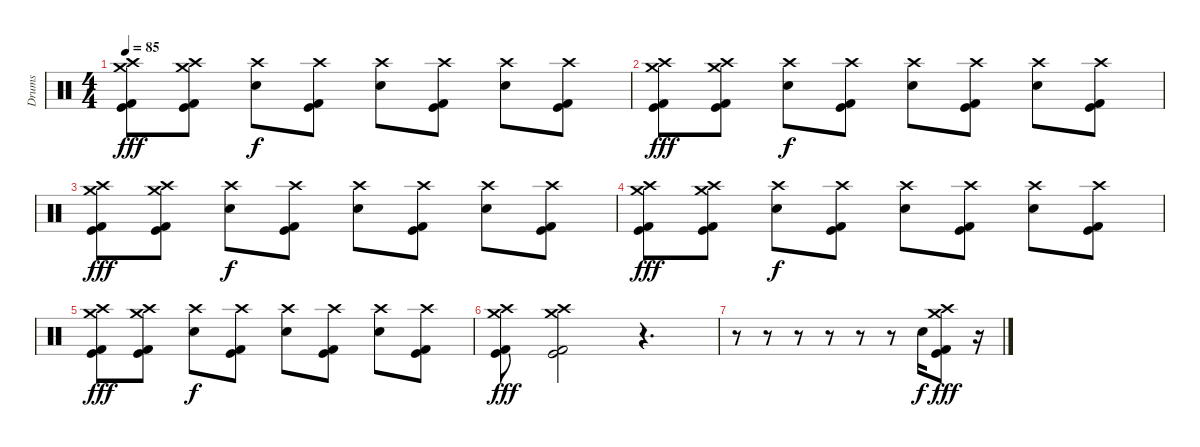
\track ("Drums" "Drums") {instrument percussion}
\staff {score}
\articulation defaults
\ts (4 4)
\tempo 85
\clef neutral
\ks c
("Crash high (hit)" "Crash medium (hit)" "Kick (hit) 2" "Kick (hit)").8{dy fff} ("Crash high (hit)" "Crash medium (hit)" "Kick (hit) 2" "Kick (hit)").8 ("Crash high (hit)" "Snare (hit) 2").8{dy f} ("Crash high (hit)" "Kick (hit) 2" "Kick (hit)").8 ("Crash high (hit)" "Snare (hit) 2").8 ("Crash high (hit)" "Kick (hit) 2" "Kick (hit)").8 ("Crash high (hit)" "Snare (hit) 2").8 ("Crash high (hit)" "Kick (hit) 2" "Kick (hit)").8 |
("Crash high (hit)" "Crash medium (hit)" "Kick (hit) 2" "Kick (hit)").8{dy fff} ("Crash high (hit)" "Crash medium (hit)" "Kick (hit) 2" "Kick (hit)").8 ("Crash high (hit)" "Snare (hit) 2").8{dy f} ("Crash high (hit)" "Kick (hit) 2" "Kick (hit)").8 ("Crash high (hit)" "Snare (hit) 2").8 ("Crash high (hit)" "Kick (hit) 2" "Kick (hit)").8 ("Crash high (hit)" "Snare (hit) 2").8 ("Crash high (hit)" "Kick (hit) 2" "Kick (hit)").8 |
("Crash high (hit)" "Crash medium (hit)" "Kick (hit) 2" "Kick (hit)").8{dy fff} ("Crash high (hit)" "Crash medium (hit)" "Kick (hit) 2" "Kick (hit)").8 ("Crash high (hit)" "Snare (hit) 2").8{dy f} ("Crash high (hit)" "Kick (hit) 2" "Kick (hit)").8 ("Crash high (hit)" "Snare (hit) 2").8 ("Crash high (hit)" "Kick (hit) 2" "Kick (hit)").8 ("Crash high (hit)" "Snare (hit) 2").8 ("Crash high (hit)" "Kick (hit) 2" "Kick (hit)").8 |
("Crash high (hit)" "Crash medium (hit)" "Kick (hit) 2" "Kick (hit)").8{dy fff} ("Crash high (hit)" "Crash medium (hit)" "Kick (hit) 2" "Kick (hit)").8 ("Crash high (hit)" "Snare (hit) 2").8{dy f} ("Crash high (hit)" "Kick (hit) 2" "Kick (hit)").8 ("Crash high (hit)" "Snare (hit) 2").8 ("Crash high (hit)" "Kick (hit) 2" "Kick (hit)").8 ("Crash high (hit)" "Snare (hit) 2").8 ("Crash high (hit)" "Kick (hit) 2" "Kick (hit)").8 |
("Crash high (hit)" "Crash medium (hit)" "Kick (hit) 2" "Kick (hit)").8{dy fff} ("Crash high (hit)" "Crash medium (hit)" "Kick (hit) 2" "Kick (hit)").8 ("Crash high (hit)" "Snare (hit) 2").8{dy f} ("Crash high (hit)" "Kick (hit) 2" "Kick (hit)").8 ("Crash high (hit)" "Snare (hit) 2").8 ("Crash high (hit)" "Kick (hit) 2" "Kick (hit)").8 ("Crash high (hit)" "Snare (hit) 2").8 ("Crash high (hit)" "Kick (hit) 2" "Kick (hit)").8 |
("Crash high (hit)" "Crash medium (hit)" "Kick (hit) 2" "Kick (hit)").8{dy fff} ("Crash high (hit)" "Crash medium (hit)" "Kick (hit) 2" "Kick (hit)").2 r.4{d} |
r.8 r.8 r.8 r.8 r.8 r.8 "Snare (hit) 2".16{dy f} ("Crash high (hit)" "Crash medium (hit)" "Kick (hit) 2" "Kick (hit)").8{dy fff} r.16
